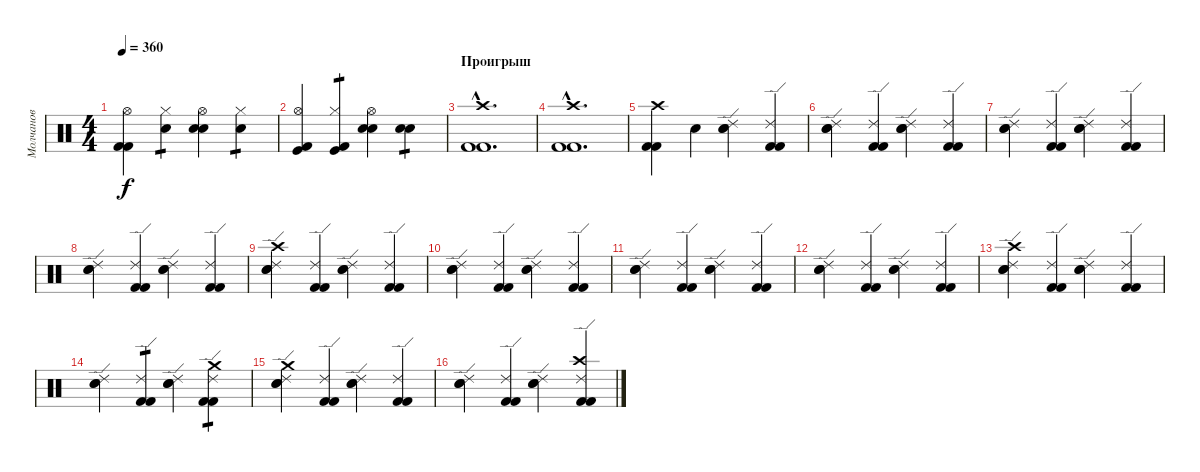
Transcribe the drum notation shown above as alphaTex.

\track ("Молчанов" "Молчанов") {instrument percussion}
\staff {score}
\articulation defaults
\ts (4 4)
\tempo 360
\clef neutral
\ks c
("Kick (hit) 2" "Kick (hit) 2" "Hi-Hat (open)").4{dy f} ("Snare (hit)"{x} "Hi-Hat (closed)").4{tp 1} ("Electric Snare (hit)" "Electric Snare (hit)" "Hi-Hat (open)").4 ("Snare (hit)"{x} "Hi-Hat (closed)").4{tp 1} |
("Kick (hit) 2" "Kick (hit)" "Hi-Hat (open)").4 ("Kick (hit) 2" "Kick (hit)" "Hi-Hat (closed)").4{tp 1} ("Electric Snare (hit)" "Electric Snare (hit)" "Hi-Hat (open)").4 ("Electric Snare (hit)" "Electric Snare (hit)").4{tp 1} |
\section ("" "Проигрыш")
("Crash high (hit)"{hac} "Kick (hit) 2"{hac} "Kick (hit) 2"{hac}).1{d} |
("Crash high (hit)"{hac} "Kick (hit) 2"{hac} "Kick (hit) 2"{hac}).1{d} |
("Kick (hit) 2" "Kick (hit) 2" "Crash high (hit)").4 "Snare (hit)"{x}.4 ("Ride (edge) 2" "Electric Snare (hit)" "Electric Snare (hit)").4 ("Ride (edge) 2" "Kick (hit) 2" "Kick (hit) 2").4 |
("Ride (edge) 2" "Electric Snare (hit)" "Electric Snare (hit)").4 ("Ride (edge) 2" "Kick (hit) 2" "Kick (hit) 2").4 ("Ride (edge) 2" "Electric Snare (hit)" "Electric Snare (hit)").4 ("Ride (edge) 2" "Kick (hit) 2" "Kick (hit) 2").4 |
("Ride (edge) 2" "Electric Snare (hit)" "Electric Snare (hit)").4 ("Ride (edge) 2" "Kick (hit) 2" "Kick (hit) 2").4 ("Ride (edge) 2" "Electric Snare (hit)" "Electric Snare (hit)").4 ("Ride (edge) 2" "Kick (hit) 2" "Kick (hit) 2").4 |
("Ride (edge) 2" "Electric Snare (hit)" "Electric Snare (hit)").4 ("Ride (edge) 2" "Kick (hit) 2" "Kick (hit) 2").4 ("Ride (edge) 2" "Electric Snare (hit)" "Electric Snare (hit)").4 ("Ride (edge) 2" "Kick (hit) 2" "Kick (hit) 2").4 |
("Ride (edge) 2" "Electric Snare (hit)" "Electric Snare (hit)" "Crash high (hit)").4 ("Ride (edge) 2" "Kick (hit) 2" "Kick (hit) 2").4 ("Ride (edge) 2" "Electric Snare (hit)" "Electric Snare (hit)").4 ("Ride (edge) 2" "Kick (hit) 2" "Kick (hit) 2").4 |
("Ride (edge) 2" "Electric Snare (hit)" "Electric Snare (hit)").4 ("Ride (edge) 2" "Kick (hit) 2" "Kick (hit) 2").4 ("Ride (edge) 2" "Electric Snare (hit)" "Electric Snare (hit)").4 ("Ride (edge) 2" "Kick (hit) 2" "Kick (hit) 2").4 |
("Ride (edge) 2" "Electric Snare (hit)" "Electric Snare (hit)").4 ("Ride (edge) 2" "Kick (hit) 2" "Kick (hit) 2").4 ("Ride (edge) 2" "Electric Snare (hit)" "Electric Snare (hit)").4 ("Ride (edge) 2" "Kick (hit) 2" "Kick (hit) 2").4 |
("Ride (edge) 2" "Electric Snare (hit)" "Electric Snare (hit)").4 ("Ride (edge) 2" "Kick (hit) 2" "Kick (hit) 2").4 ("Ride (edge) 2" "Electric Snare (hit)" "Electric Snare (hit)").4 ("Ride (edge) 2" "Kick (hit) 2" "Kick (hit) 2").4 |
("Ride (edge) 2" "Electric Snare (hit)" "Electric Snare (hit)" "Crash high (hit)").4 ("Ride (edge) 2" "Kick (hit) 2" "Kick (hit) 2").4 ("Ride (edge) 2" "Electric Snare (hit)" "Electric Snare (hit)").4 ("Ride (edge) 2" "Kick (hit) 2" "Kick (hit) 2").4 |
("Ride (edge) 2" "Electric Snare (hit)" "Electric Snare (hit)").4 ("Ride (edge) 2" "Kick (hit) 2" "Kick (hit) 2").4{tp 1} ("Ride (edge) 2" "Electric Snare (hit)" "Electric Snare (hit)").4 ("Ride (edge) 2" "Kick (hit) 2" "Kick (hit) 2" "Crash medium (hit)").4{tp 1} |
("Ride (edge) 2" "Electric Snare (hit)" "Electric Snare (hit)" "Crash medium (hit)").4 ("Ride (edge) 2" "Kick (hit) 2" "Kick (hit) 2").4 ("Ride (edge) 2" "Electric Snare (hit)" "Electric Snare (hit)").4 ("Ride (edge) 2" "Kick (hit) 2" "Kick (hit) 2").4 |
("Ride (edge) 2" "Electric Snare (hit)" "Electric Snare (hit)").4 ("Ride (edge) 2" "Kick (hit) 2" "Kick (hit) 2").4 ("Ride (edge) 2" "Electric Snare (hit)" "Electric Snare (hit)").4 ("Ride (edge) 2" "Kick (hit) 2" "Kick (hit) 2" "Crash high (hit)").4
